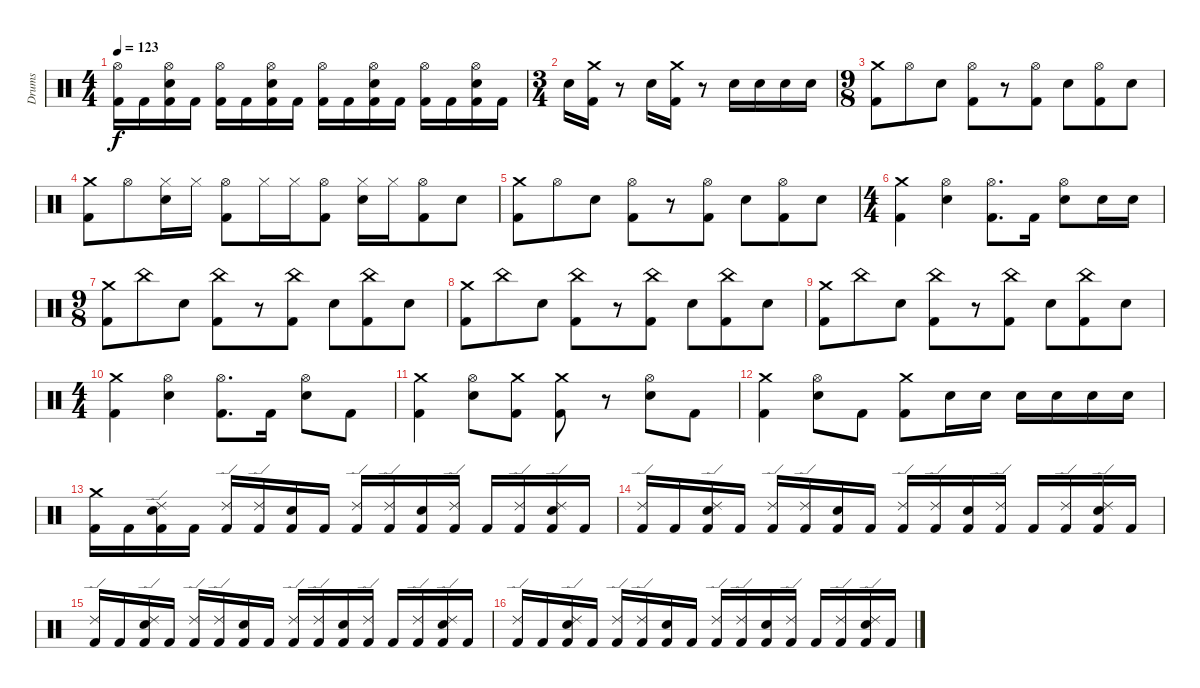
\track ("Drums" "Drums") {instrument percussion}
\staff {score}
\articulation defaults
\ts (4 4)
\tempo 123
\clef neutral
\ks c
("Hi-Hat (open)" "Kick (hit) 2").16{dy f} "Kick (hit) 2".16 ("Hi-Hat (open)" "Kick (hit) 2" "Electric Snare (hit)").16 "Kick (hit) 2".16 ("Kick (hit) 2" "Hi-Hat (open)").16 "Kick (hit) 2".16 ("Kick (hit) 2" "Electric Snare (hit)" "Hi-Hat (open)").16 "Kick (hit) 2".16 ("Kick (hit) 2" "Hi-Hat (open)").16 "Kick (hit) 2".16 ("Kick (hit) 2" "Electric Snare (hit)" "Hi-Hat (open)").16 "Kick (hit) 2".16 ("Kick (hit) 2" "Hi-Hat (open)").16 "Kick (hit) 2".16 ("Kick (hit) 2" "Electric Snare (hit)" "Hi-Hat (open)").16 "Kick (hit) 2".16 |
\ts (3 4)
"Electric Snare (hit)".16 ("Crash medium (hit)" "Kick (hit) 2").16 r.8 "Electric Snare (hit)".16 ("Crash medium (hit)" "Kick (hit) 2").16 r.8 "Electric Snare (hit)".16 "Electric Snare (hit)".16 "Electric Snare (hit)".16 "Electric Snare (hit)".16 |
\ts (9 8)
("Kick (hit) 2" "Crash medium (hit)").8 "Hi-Hat (open)".8 "Electric Snare (hit)".8 ("Hi-Hat (open)" "Kick (hit) 2").8 r.8 ("Hi-Hat (open)" "Kick (hit) 2").8 "Electric Snare (hit)".8 ("Hi-Hat (open)" "Kick (hit) 2").8 "Electric Snare (hit)".8 |
("Kick (hit) 2" "Crash medium (hit)").8 "Hi-Hat (open)".8 ("Hi-Hat (closed)" "Electric Snare (hit)").16 "Hi-Hat (closed)".16 ("Hi-Hat (open)" "Kick (hit) 2").8 "Hi-Hat (closed)".16 "Hi-Hat (closed)".16 ("Hi-Hat (open)" "Kick (hit) 2").8 ("Hi-Hat (closed)" "Electric Snare (hit)").16 "Hi-Hat (closed)".16 ("Hi-Hat (open)" "Kick (hit) 2").8 "Electric Snare (hit)".8 |
("Kick (hit) 2" "Crash medium (hit)").8 "Hi-Hat (open)".8 "Electric Snare (hit)".8 ("Hi-Hat (open)" "Kick (hit) 2").8 r.8 ("Hi-Hat (open)" "Kick (hit) 2").8 "Electric Snare (hit)".8 ("Hi-Hat (open)" "Kick (hit) 2").8 "Electric Snare (hit)".8 |
\ts (4 4)
("Kick (hit) 2" "Crash medium (hit)").4 ("Electric Snare (hit)" "Hi-Hat (open)").4 ("Kick (hit) 2" "Hi-Hat (open)").8{d} "Kick (hit) 2".16 ("Hi-Hat (open)" "Electric Snare (hit)").8 "Electric Snare (hit)".16 "Electric Snare (hit)".16 |
\ts (9 8)
("Kick (hit) 2" "Crash medium (hit)").8 "China (hit)".8 "Electric Snare (hit)".8 ("China (hit)" "Kick (hit) 2").8 r.8 ("China (hit)" "Kick (hit) 2").8 "Electric Snare (hit)".8 ("China (hit)" "Kick (hit) 2").8 "Electric Snare (hit)".8 |
("Kick (hit) 2" "Crash medium (hit)").8 "China (hit)".8 "Electric Snare (hit)".8 ("China (hit)" "Kick (hit) 2").8 r.8 ("China (hit)" "Kick (hit) 2").8 "Electric Snare (hit)".8 ("China (hit)" "Kick (hit) 2").8 "Electric Snare (hit)".8 |
("Kick (hit) 2" "Crash medium (hit)").8 "China (hit)".8 "Electric Snare (hit)".8 ("China (hit)" "Kick (hit) 2").8 r.8 ("China (hit)" "Kick (hit) 2").8 "Electric Snare (hit)".8 ("China (hit)" "Kick (hit) 2").8 "Electric Snare (hit)".8 |
\ts (4 4)
("Kick (hit) 2" "Crash medium (hit)").4 ("Electric Snare (hit)" "Hi-Hat (open)").4 ("Kick (hit) 2" "Hi-Hat (open)").8{d} "Kick (hit) 2".16 ("Hi-Hat (open)" "Electric Snare (hit)").8 "Kick (hit) 2".8 |
("Crash medium (hit)" "Kick (hit) 2").4 ("Hi-Hat (open)" "Electric Snare (hit)").8 ("Crash medium (hit)" "Kick (hit) 2").8 ("Crash medium (hit)" "Kick (hit) 2").8 r.8 ("Hi-Hat (open)" "Electric Snare (hit)").8 "Kick (hit) 2".8 |
("Crash medium (hit)" "Kick (hit) 2").4 ("Hi-Hat (open)" "Electric Snare (hit)").8 "Kick (hit) 2".8 ("Crash medium (hit)" "Kick (hit) 2").8 "Electric Snare (hit)".16 "Electric Snare (hit)".16 "Electric Snare (hit)".16 "Electric Snare (hit)".16 "Electric Snare (hit)".16 "Electric Snare (hit)".16 |
("Crash medium (hit)" "Kick (hit) 2").16 "Kick (hit) 2".16 ("Electric Snare (hit)" "Ride (edge) 2" "Kick (hit) 2").16 "Kick (hit) 2".16 ("Ride (edge) 2" "Kick (hit) 2").16 ("Ride (edge) 2" "Kick (hit) 2").16 ("Electric Snare (hit)" "Kick (hit) 2").16 "Kick (hit) 2".16 ("Ride (edge) 2" "Kick (hit) 2").16 ("Ride (edge) 2" "Kick (hit) 2").16 ("Electric Snare (hit)" "Kick (hit) 2").16 ("Ride (edge) 2" "Kick (hit) 2").16 "Kick (hit) 2".16 ("Ride (edge) 2" "Kick (hit) 2").16 ("Electric Snare (hit)" "Ride (edge) 2" "Kick (hit) 2").16 "Kick (hit) 2".16 |
("Ride (edge) 2" "Kick (hit) 2").16 "Kick (hit) 2".16 ("Electric Snare (hit)" "Ride (edge) 2" "Kick (hit) 2").16 "Kick (hit) 2".16 ("Ride (edge) 2" "Kick (hit) 2").16 ("Ride (edge) 2" "Kick (hit) 2").16 ("Electric Snare (hit)" "Kick (hit) 2").16 "Kick (hit) 2".16 ("Ride (edge) 2" "Kick (hit) 2").16 ("Ride (edge) 2" "Kick (hit) 2").16 ("Electric Snare (hit)" "Kick (hit) 2").16 ("Ride (edge) 2" "Kick (hit) 2").16 "Kick (hit) 2".16 ("Ride (edge) 2" "Kick (hit) 2").16 ("Electric Snare (hit)" "Ride (edge) 2" "Kick (hit) 2").16 "Kick (hit) 2".16 |
("Ride (edge) 2" "Kick (hit) 2").16 "Kick (hit) 2".16 ("Electric Snare (hit)" "Ride (edge) 2" "Kick (hit) 2").16 "Kick (hit) 2".16 ("Ride (edge) 2" "Kick (hit) 2").16 ("Ride (edge) 2" "Kick (hit) 2").16 ("Electric Snare (hit)" "Kick (hit) 2").16 "Kick (hit) 2".16 ("Ride (edge) 2" "Kick (hit) 2").16 ("Ride (edge) 2" "Kick (hit) 2").16 ("Electric Snare (hit)" "Kick (hit) 2").16 ("Ride (edge) 2" "Kick (hit) 2").16 "Kick (hit) 2".16 ("Ride (edge) 2" "Kick (hit) 2").16 ("Electric Snare (hit)" "Ride (edge) 2" "Kick (hit) 2").16 "Kick (hit) 2".16 |
("Ride (edge) 2" "Kick (hit) 2").16 "Kick (hit) 2".16 ("Electric Snare (hit)" "Ride (edge) 2" "Kick (hit) 2").16 "Kick (hit) 2".16 ("Ride (edge) 2" "Kick (hit) 2").16 ("Ride (edge) 2" "Kick (hit) 2").16 ("Electric Snare (hit)" "Kick (hit) 2").16 "Kick (hit) 2".16 ("Ride (edge) 2" "Kick (hit) 2").16 ("Ride (edge) 2" "Kick (hit) 2").16 ("Electric Snare (hit)" "Kick (hit) 2").16 ("Ride (edge) 2" "Kick (hit) 2").16 "Kick (hit) 2".16 ("Ride (edge) 2" "Kick (hit) 2").16 ("Electric Snare (hit)" "Ride (edge) 2" "Kick (hit) 2").16 "Kick (hit) 2".16
